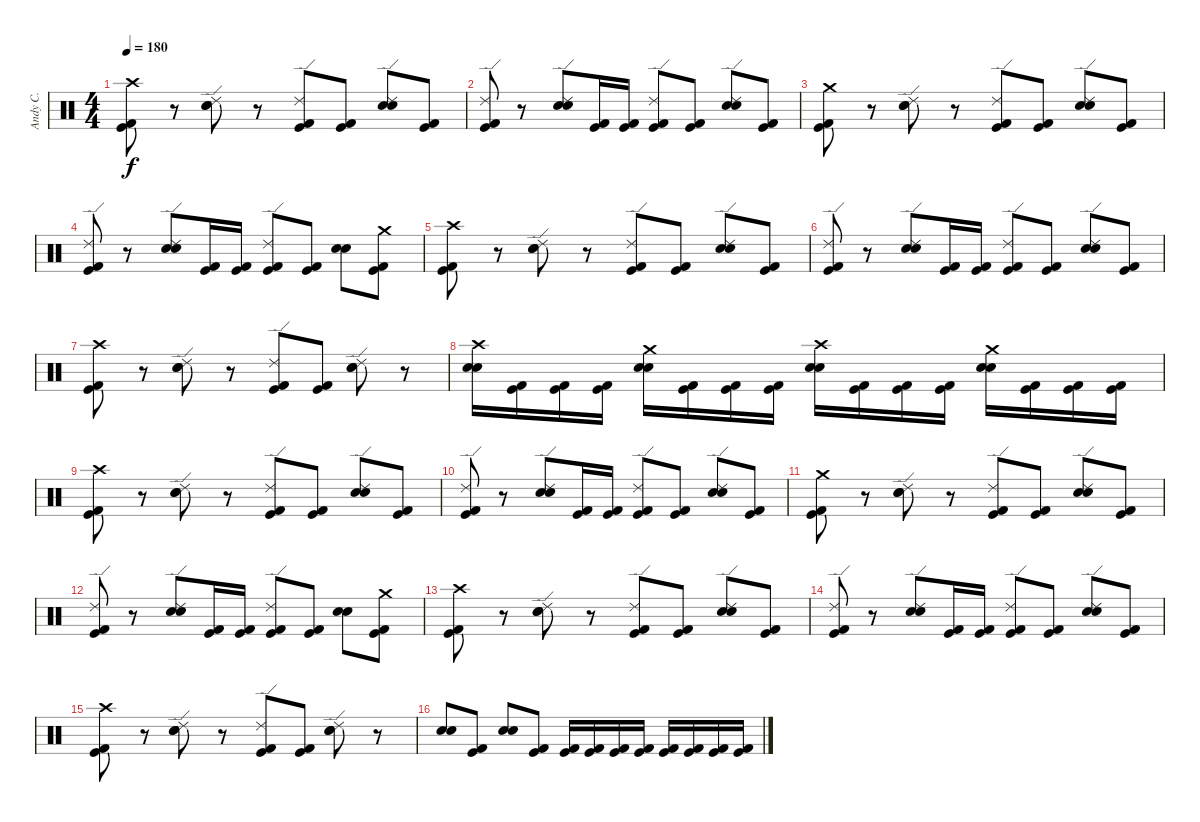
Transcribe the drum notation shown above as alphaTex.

\track ("Andy C." "Andy C.") {instrument percussion}
\staff {score}
\articulation defaults
\ts (4 4)
\tempo 180
\clef neutral
\ks c
("Crash high (hit)" "Kick (hit)" "Kick (hit) 2").8{dy f} r.8 ("Ride (edge) 2" "Snare (hit) 2" "Electric Snare (hit)").8 r.8 ("Ride (edge) 2" "Kick (hit)" "Kick (hit) 2").8 ("Kick (hit)" "Kick (hit) 2").8 ("Ride (edge) 2" "Snare (hit) 2" "Electric Snare (hit)").8 ("Kick (hit)" "Kick (hit) 2").8 |
("Ride (edge) 2" "Kick (hit)" "Kick (hit) 2").8 r.8 ("Ride (edge) 2" "Snare (hit) 2" "Electric Snare (hit)").8 ("Kick (hit)" "Kick (hit) 2").16 ("Kick (hit)" "Kick (hit) 2").16 ("Ride (edge) 2" "Kick (hit)" "Kick (hit) 2").8 ("Kick (hit)" "Kick (hit) 2").8 ("Ride (edge) 2" "Snare (hit) 2" "Electric Snare (hit)").8 ("Kick (hit)" "Kick (hit) 2").8 |
("Crash medium (hit)" "Kick (hit)" "Kick (hit) 2").8 r.8 ("Ride (edge) 2" "Snare (hit) 2" "Electric Snare (hit)").8 r.8 ("Ride (edge) 2" "Kick (hit)" "Kick (hit) 2").8 ("Kick (hit)" "Kick (hit) 2").8 ("Ride (edge) 2" "Snare (hit) 2" "Electric Snare (hit)").8 ("Kick (hit)" "Kick (hit) 2").8 |
("Ride (edge) 2" "Kick (hit)" "Kick (hit) 2").8 r.8 ("Ride (edge) 2" "Snare (hit) 2" "Electric Snare (hit)").8 ("Kick (hit)" "Kick (hit) 2").16 ("Kick (hit)" "Kick (hit) 2").16 ("Ride (edge) 2" "Kick (hit)" "Kick (hit) 2").8 ("Kick (hit)" "Kick (hit) 2").8 ("Snare (hit) 2" "Electric Snare (hit)").8 ("Crash medium (hit)" "Kick (hit)" "Kick (hit) 2").8 |
("Crash high (hit)" "Kick (hit)" "Kick (hit) 2").8 r.8 ("Ride (edge) 2" "Snare (hit) 2" "Electric Snare (hit)").8 r.8 ("Ride (edge) 2" "Kick (hit)" "Kick (hit) 2").8 ("Kick (hit)" "Kick (hit) 2").8 ("Ride (edge) 2" "Snare (hit) 2" "Electric Snare (hit)").8 ("Kick (hit)" "Kick (hit) 2").8 |
("Ride (edge) 2" "Kick (hit)" "Kick (hit) 2").8 r.8 ("Ride (edge) 2" "Snare (hit) 2" "Electric Snare (hit)").8 ("Kick (hit)" "Kick (hit) 2").16 ("Kick (hit)" "Kick (hit) 2").16 ("Ride (edge) 2" "Kick (hit)" "Kick (hit) 2").8 ("Kick (hit)" "Kick (hit) 2").8 ("Ride (edge) 2" "Snare (hit) 2" "Electric Snare (hit)").8 ("Kick (hit)" "Kick (hit) 2").8 |
("Crash high (hit)" "Kick (hit)" "Kick (hit) 2").8 r.8 ("Ride (edge) 2" "Snare (hit) 2" "Electric Snare (hit)").8 r.8 ("Ride (edge) 2" "Kick (hit)" "Kick (hit) 2").8 ("Kick (hit)" "Kick (hit) 2").8 ("Ride (edge) 2" "Snare (hit) 2" "Electric Snare (hit)").8 r.8 |
("Crash high (hit)" "Snare (hit) 2" "Electric Snare (hit)").16 ("Kick (hit)" "Kick (hit) 2").16 ("Kick (hit)" "Kick (hit) 2").16 ("Kick (hit)" "Kick (hit) 2").16 ("Crash medium (hit)" "Snare (hit) 2" "Electric Snare (hit)").16 ("Kick (hit)" "Kick (hit) 2").16 ("Kick (hit)" "Kick (hit) 2").16 ("Kick (hit)" "Kick (hit) 2").16 ("Crash high (hit)" "Snare (hit) 2" "Electric Snare (hit)").16 ("Kick (hit)" "Kick (hit) 2").16 ("Kick (hit)" "Kick (hit) 2").16 ("Kick (hit)" "Kick (hit) 2").16 ("Crash medium (hit)" "Snare (hit) 2" "Electric Snare (hit)").16 ("Kick (hit)" "Kick (hit) 2").16 ("Kick (hit)" "Kick (hit) 2").16 ("Kick (hit)" "Kick (hit) 2").16 |
("Crash high (hit)" "Kick (hit)" "Kick (hit) 2").8 r.8 ("Ride (edge) 2" "Snare (hit) 2" "Electric Snare (hit)").8 r.8 ("Ride (edge) 2" "Kick (hit)" "Kick (hit) 2").8 ("Kick (hit)" "Kick (hit) 2").8 ("Ride (edge) 2" "Snare (hit) 2" "Electric Snare (hit)").8 ("Kick (hit)" "Kick (hit) 2").8 |
("Ride (edge) 2" "Kick (hit)" "Kick (hit) 2").8 r.8 ("Ride (edge) 2" "Snare (hit) 2" "Electric Snare (hit)").8 ("Kick (hit)" "Kick (hit) 2").16 ("Kick (hit)" "Kick (hit) 2").16 ("Ride (edge) 2" "Kick (hit)" "Kick (hit) 2").8 ("Kick (hit)" "Kick (hit) 2").8 ("Ride (edge) 2" "Snare (hit) 2" "Electric Snare (hit)").8 ("Kick (hit)" "Kick (hit) 2").8 |
("Crash medium (hit)" "Kick (hit)" "Kick (hit) 2").8 r.8 ("Ride (edge) 2" "Snare (hit) 2" "Electric Snare (hit)").8 r.8 ("Ride (edge) 2" "Kick (hit)" "Kick (hit) 2").8 ("Kick (hit)" "Kick (hit) 2").8 ("Ride (edge) 2" "Snare (hit) 2" "Electric Snare (hit)").8 ("Kick (hit)" "Kick (hit) 2").8 |
("Ride (edge) 2" "Kick (hit)" "Kick (hit) 2").8 r.8 ("Ride (edge) 2" "Snare (hit) 2" "Electric Snare (hit)").8 ("Kick (hit)" "Kick (hit) 2").16 ("Kick (hit)" "Kick (hit) 2").16 ("Ride (edge) 2" "Kick (hit)" "Kick (hit) 2").8 ("Kick (hit)" "Kick (hit) 2").8 ("Snare (hit) 2" "Electric Snare (hit)").8 ("Crash medium (hit)" "Kick (hit)" "Kick (hit) 2").8 |
("Crash high (hit)" "Kick (hit)" "Kick (hit) 2").8 r.8 ("Ride (edge) 2" "Snare (hit) 2" "Electric Snare (hit)").8 r.8 ("Ride (edge) 2" "Kick (hit)" "Kick (hit) 2").8 ("Kick (hit)" "Kick (hit) 2").8 ("Ride (edge) 2" "Snare (hit) 2" "Electric Snare (hit)").8 ("Kick (hit)" "Kick (hit) 2").8 |
("Ride (edge) 2" "Kick (hit)" "Kick (hit) 2").8 r.8 ("Ride (edge) 2" "Snare (hit) 2" "Electric Snare (hit)").8 ("Kick (hit)" "Kick (hit) 2").16 ("Kick (hit)" "Kick (hit) 2").16 ("Ride (edge) 2" "Kick (hit)" "Kick (hit) 2").8 ("Kick (hit)" "Kick (hit) 2").8 ("Ride (edge) 2" "Snare (hit) 2" "Electric Snare (hit)").8 ("Kick (hit)" "Kick (hit) 2").8 |
("Crash high (hit)" "Kick (hit)" "Kick (hit) 2").8 r.8 ("Ride (edge) 2" "Snare (hit) 2" "Electric Snare (hit)").8 r.8 ("Ride (edge) 2" "Kick (hit)" "Kick (hit) 2").8 ("Kick (hit)" "Kick (hit) 2").8 ("Ride (edge) 2" "Snare (hit) 2" "Electric Snare (hit)").8 r.8 |
("Snare (hit) 2" "Electric Snare (hit)").8 ("Kick (hit)" "Kick (hit) 2").8 ("Snare (hit) 2" "Electric Snare (hit)").8 ("Kick (hit)" "Kick (hit) 2").8 ("Kick (hit)" "Kick (hit) 2").16 ("Kick (hit)" "Kick (hit) 2").16 ("Kick (hit)" "Kick (hit) 2").16 ("Kick (hit)" "Kick (hit) 2").16 ("Kick (hit)" "Kick (hit) 2").16 ("Kick (hit)" "Kick (hit) 2").16 ("Kick (hit)" "Kick (hit) 2").16 ("Kick (hit)" "Kick (hit) 2").16
